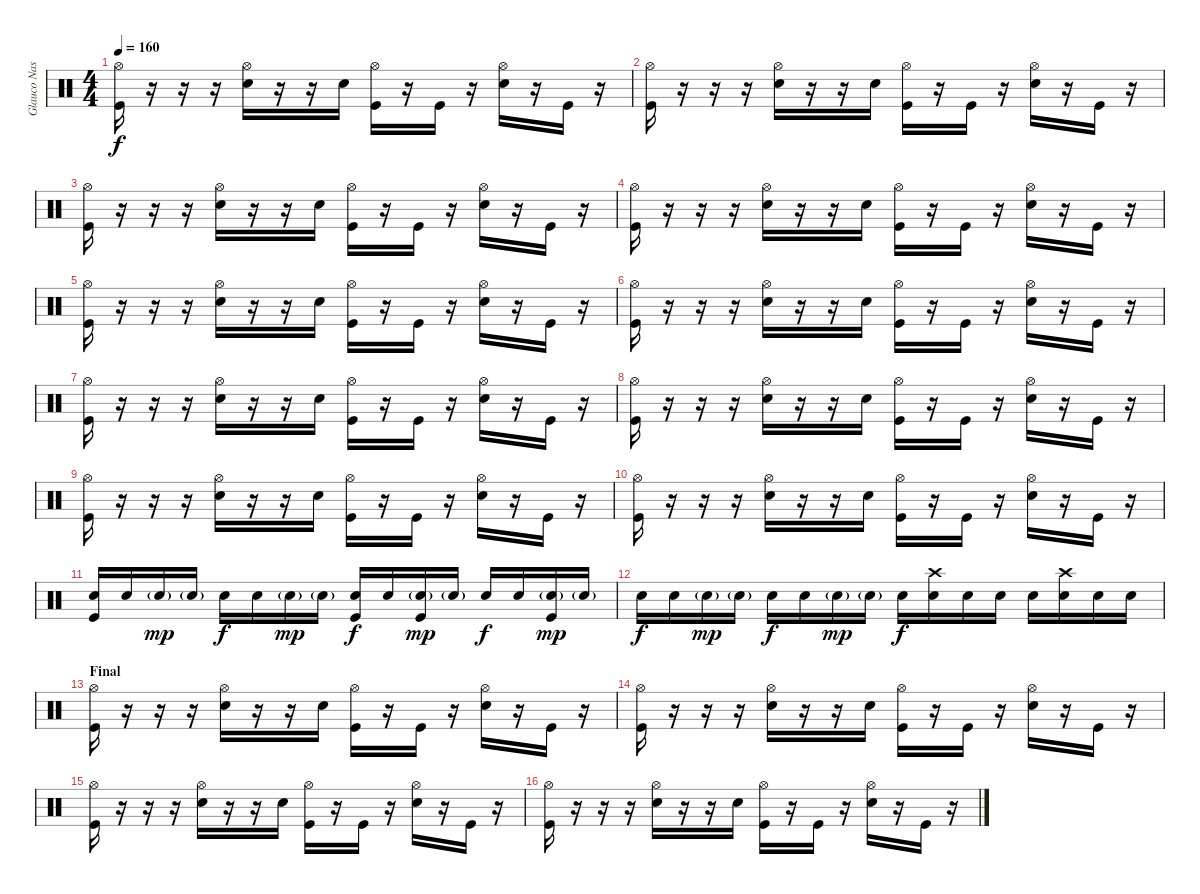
\track ("Glauco Nastácia" "Glauco Nas") {instrument percussion}
\staff {score}
\articulation defaults
\ts (4 4)
\tempo 160
\clef neutral
\ks c
("Hi-Hat (open)" "Kick (hit)").16{dy f} r.16 r.16 r.16 ("Hi-Hat (open)" "Electric Snare (hit)").16 r.16 r.16 "Electric Snare (hit)".16 ("Hi-Hat (open)" "Kick (hit)").16 r.16 "Kick (hit)".16 r.16 ("Hi-Hat (open)" "Electric Snare (hit)").16 r.16 "Kick (hit)".16 r.16 |
("Hi-Hat (open)" "Kick (hit)").16 r.16 r.16 r.16 ("Hi-Hat (open)" "Electric Snare (hit)").16 r.16 r.16 "Electric Snare (hit)".16 ("Hi-Hat (open)" "Kick (hit)").16 r.16 "Kick (hit)".16 r.16 ("Hi-Hat (open)" "Electric Snare (hit)").16 r.16 "Kick (hit)".16 r.16 |
("Hi-Hat (open)" "Kick (hit)").16 r.16 r.16 r.16 ("Hi-Hat (open)" "Electric Snare (hit)").16 r.16 r.16 "Electric Snare (hit)".16 ("Hi-Hat (open)" "Kick (hit)").16 r.16 "Kick (hit)".16 r.16 ("Hi-Hat (open)" "Electric Snare (hit)").16 r.16 "Kick (hit)".16 r.16 |
("Hi-Hat (open)" "Kick (hit)").16 r.16 r.16 r.16 ("Hi-Hat (open)" "Electric Snare (hit)").16 r.16 r.16 "Electric Snare (hit)".16 ("Hi-Hat (open)" "Kick (hit)").16 r.16 "Kick (hit)".16 r.16 ("Hi-Hat (open)" "Electric Snare (hit)").16 r.16 "Kick (hit)".16 r.16 |
("Hi-Hat (open)" "Kick (hit)").16 r.16 r.16 r.16 ("Hi-Hat (open)" "Electric Snare (hit)").16 r.16 r.16 "Electric Snare (hit)".16 ("Hi-Hat (open)" "Kick (hit)").16 r.16 "Kick (hit)".16 r.16 ("Hi-Hat (open)" "Electric Snare (hit)").16 r.16 "Kick (hit)".16 r.16 |
("Hi-Hat (open)" "Kick (hit)").16 r.16 r.16 r.16 ("Hi-Hat (open)" "Electric Snare (hit)").16 r.16 r.16 "Electric Snare (hit)".16 ("Hi-Hat (open)" "Kick (hit)").16 r.16 "Kick (hit)".16 r.16 ("Hi-Hat (open)" "Electric Snare (hit)").16 r.16 "Kick (hit)".16 r.16 |
("Hi-Hat (open)" "Kick (hit)").16 r.16 r.16 r.16 ("Hi-Hat (open)" "Electric Snare (hit)").16 r.16 r.16 "Electric Snare (hit)".16 ("Hi-Hat (open)" "Kick (hit)").16 r.16 "Kick (hit)".16 r.16 ("Hi-Hat (open)" "Electric Snare (hit)").16 r.16 "Kick (hit)".16 r.16 |
("Hi-Hat (open)" "Kick (hit)").16 r.16 r.16 r.16 ("Hi-Hat (open)" "Electric Snare (hit)").16 r.16 r.16 "Electric Snare (hit)".16 ("Hi-Hat (open)" "Kick (hit)").16 r.16 "Kick (hit)".16 r.16 ("Hi-Hat (open)" "Electric Snare (hit)").16 r.16 "Kick (hit)".16 r.16 |
("Hi-Hat (open)" "Kick (hit)").16 r.16 r.16 r.16 ("Hi-Hat (open)" "Electric Snare (hit)").16 r.16 r.16 "Electric Snare (hit)".16 ("Hi-Hat (open)" "Kick (hit)").16 r.16 "Kick (hit)".16 r.16 ("Hi-Hat (open)" "Electric Snare (hit)").16 r.16 "Kick (hit)".16 r.16 |
("Hi-Hat (open)" "Kick (hit)").16 r.16 r.16 r.16 ("Hi-Hat (open)" "Electric Snare (hit)").16 r.16 r.16 "Electric Snare (hit)".16 ("Hi-Hat (open)" "Kick (hit)").16 r.16 "Kick (hit)".16 r.16 ("Hi-Hat (open)" "Electric Snare (hit)").16 r.16 "Kick (hit)".16 r.16 |
("Electric Snare (hit)" "Kick (hit)").16 "Electric Snare (hit)".16 "Electric Snare (hit)"{g}.16{dy mp} "Electric Snare (hit)"{g}.16 "Electric Snare (hit)".16{dy f} "Electric Snare (hit)".16 "Electric Snare (hit)"{g}.16{dy mp} "Electric Snare (hit)"{g}.16 ("Electric Snare (hit)" "Kick (hit)").16{dy f} "Electric Snare (hit)".16 ("Electric Snare (hit)"{g} "Kick (hit)").16{dy mp} "Electric Snare (hit)"{g}.16 "Electric Snare (hit)".16{dy f} "Electric Snare (hit)".16 ("Electric Snare (hit)"{g} "Kick (hit)").16{dy mp} "Electric Snare (hit)"{g}.16 |
"Electric Snare (hit)".16{dy f} "Electric Snare (hit)".16 "Electric Snare (hit)"{g}.16{dy mp} "Electric Snare (hit)"{g}.16 "Electric Snare (hit)".16{dy f} "Electric Snare (hit)".16 "Electric Snare (hit)"{g}.16{dy mp} "Electric Snare (hit)"{g}.16 "Electric Snare (hit)".16{dy f} ("Crash high (hit)" "Electric Snare (hit)").16 "Electric Snare (hit)".16 "Electric Snare (hit)".16 "Electric Snare (hit)".16 ("Crash high (hit)" "Electric Snare (hit)").16 "Electric Snare (hit)".16 "Electric Snare (hit)".16 |
\section ("" "Final")
("Hi-Hat (open)" "Kick (hit)").16 r.16 r.16 r.16 ("Hi-Hat (open)" "Electric Snare (hit)").16 r.16 r.16 "Electric Snare (hit)".16 ("Hi-Hat (open)" "Kick (hit)").16 r.16 "Kick (hit)".16 r.16 ("Hi-Hat (open)" "Electric Snare (hit)").16 r.16 "Kick (hit)".16 r.16 |
("Hi-Hat (open)" "Kick (hit)").16 r.16 r.16 r.16 ("Hi-Hat (open)" "Electric Snare (hit)").16 r.16 r.16 "Electric Snare (hit)".16 ("Hi-Hat (open)" "Kick (hit)").16 r.16 "Kick (hit)".16 r.16 ("Hi-Hat (open)" "Electric Snare (hit)").16 r.16 "Kick (hit)".16 r.16 |
("Hi-Hat (open)" "Kick (hit)").16 r.16 r.16 r.16 ("Hi-Hat (open)" "Electric Snare (hit)").16 r.16 r.16 "Electric Snare (hit)".16 ("Hi-Hat (open)" "Kick (hit)").16 r.16 "Kick (hit)".16 r.16 ("Hi-Hat (open)" "Electric Snare (hit)").16 r.16 "Kick (hit)".16 r.16 |
("Hi-Hat (open)" "Kick (hit)").16 r.16 r.16 r.16 ("Hi-Hat (open)" "Electric Snare (hit)").16 r.16 r.16 "Electric Snare (hit)".16 ("Hi-Hat (open)" "Kick (hit)").16 r.16 "Kick (hit)".16 r.16 ("Hi-Hat (open)" "Electric Snare (hit)").16 r.16 "Kick (hit)".16 r.16
